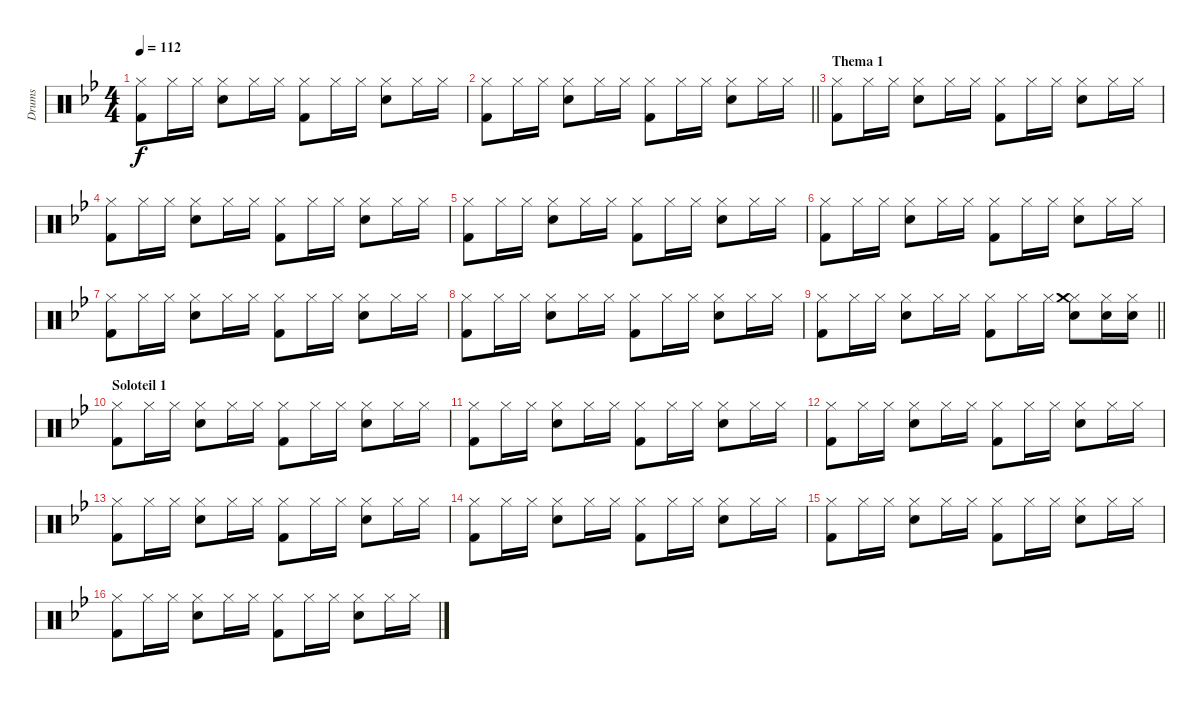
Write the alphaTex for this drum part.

\track ("Drums" "Drums") {instrument percussion}
\staff {score}
\articulation defaults
\ts (4 4)
\tempo 112
\clef neutral
\ks bb
("Hi-Hat (closed)" "Kick (hit) 2").8{dy f} "Hi-Hat (closed)".16 "Hi-Hat (closed)".16 ("Snare (hit) 2" "Hi-Hat (closed)").8 "Hi-Hat (closed)".16 "Hi-Hat (closed)".16 ("Hi-Hat (closed)" "Kick (hit) 2").8 "Hi-Hat (closed)".16 "Hi-Hat (closed)".16 ("Snare (hit) 2" "Hi-Hat (closed)").8 "Hi-Hat (closed)".16 "Hi-Hat (closed)".16 |
\barLineRight lightlight
("Hi-Hat (closed)" "Kick (hit) 2").8 "Hi-Hat (closed)".16 "Hi-Hat (closed)".16 ("Snare (hit) 2" "Hi-Hat (closed)").8 "Hi-Hat (closed)".16 "Hi-Hat (closed)".16 ("Hi-Hat (closed)" "Kick (hit) 2").8 "Hi-Hat (closed)".16 "Hi-Hat (closed)".16 ("Snare (hit) 2" "Hi-Hat (closed)").8 "Hi-Hat (closed)".16 "Hi-Hat (closed)".16 |
\section ("" "Thema 1")
("Hi-Hat (closed)" "Kick (hit) 2").8 "Hi-Hat (closed)".16 "Hi-Hat (closed)".16 ("Snare (hit) 2" "Hi-Hat (closed)").8 "Hi-Hat (closed)".16 "Hi-Hat (closed)".16 ("Hi-Hat (closed)" "Kick (hit) 2").8 "Hi-Hat (closed)".16 "Hi-Hat (closed)".16 ("Snare (hit) 2" "Hi-Hat (closed)").8 "Hi-Hat (closed)".16 "Hi-Hat (closed)".16 |
("Hi-Hat (closed)" "Kick (hit) 2").8 "Hi-Hat (closed)".16 "Hi-Hat (closed)".16 ("Snare (hit) 2" "Hi-Hat (closed)").8 "Hi-Hat (closed)".16 "Hi-Hat (closed)".16 ("Hi-Hat (closed)" "Kick (hit) 2").8 "Hi-Hat (closed)".16 "Hi-Hat (closed)".16 ("Snare (hit) 2" "Hi-Hat (closed)").8 "Hi-Hat (closed)".16 "Hi-Hat (closed)".16 |
("Hi-Hat (closed)" "Kick (hit) 2").8 "Hi-Hat (closed)".16 "Hi-Hat (closed)".16 ("Snare (hit) 2" "Hi-Hat (closed)").8 "Hi-Hat (closed)".16 "Hi-Hat (closed)".16 ("Hi-Hat (closed)" "Kick (hit) 2").8 "Hi-Hat (closed)".16 "Hi-Hat (closed)".16 ("Snare (hit) 2" "Hi-Hat (closed)").8 "Hi-Hat (closed)".16 "Hi-Hat (closed)".16 |
("Hi-Hat (closed)" "Kick (hit) 2").8 "Hi-Hat (closed)".16 "Hi-Hat (closed)".16 ("Snare (hit) 2" "Hi-Hat (closed)").8 "Hi-Hat (closed)".16 "Hi-Hat (closed)".16 ("Hi-Hat (closed)" "Kick (hit) 2").8 "Hi-Hat (closed)".16 "Hi-Hat (closed)".16 ("Snare (hit) 2" "Hi-Hat (closed)").8 "Hi-Hat (closed)".16 "Hi-Hat (closed)".16 |
("Hi-Hat (closed)" "Kick (hit) 2").8 "Hi-Hat (closed)".16 "Hi-Hat (closed)".16 ("Snare (hit) 2" "Hi-Hat (closed)").8 "Hi-Hat (closed)".16 "Hi-Hat (closed)".16 ("Hi-Hat (closed)" "Kick (hit) 2").8 "Hi-Hat (closed)".16 "Hi-Hat (closed)".16 ("Snare (hit) 2" "Hi-Hat (closed)").8 "Hi-Hat (closed)".16 "Hi-Hat (closed)".16 |
("Hi-Hat (closed)" "Kick (hit) 2").8 "Hi-Hat (closed)".16 "Hi-Hat (closed)".16 ("Snare (hit) 2" "Hi-Hat (closed)").8 "Hi-Hat (closed)".16 "Hi-Hat (closed)".16 ("Hi-Hat (closed)" "Kick (hit) 2").8 "Hi-Hat (closed)".16 "Hi-Hat (closed)".16 ("Snare (hit) 2" "Hi-Hat (closed)").8 "Hi-Hat (closed)".16 "Hi-Hat (closed)".16 |
\barLineRight lightlight
("Hi-Hat (closed)" "Kick (hit) 2").8 "Hi-Hat (closed)".16 "Hi-Hat (closed)".16 ("Snare (hit) 2" "Hi-Hat (closed)").8 "Hi-Hat (closed)".16 "Hi-Hat (closed)".16 ("Hi-Hat (closed)" "Kick (hit) 2").8 "Hi-Hat (closed)".16 "Hi-Hat (closed)".16 ("Snare (hit) 2" "Hi-Hat (closed)" "Crash medium (hit)").8 ("Hi-Hat (closed)" "Snare (hit) 2").16 ("Hi-Hat (closed)" "Snare (hit) 2").16 |
\section ("" "Soloteil 1")
("Hi-Hat (closed)" "Kick (hit) 2").8 "Hi-Hat (closed)".16 "Hi-Hat (closed)".16 ("Snare (hit) 2" "Hi-Hat (closed)").8 "Hi-Hat (closed)".16 "Hi-Hat (closed)".16 ("Hi-Hat (closed)" "Kick (hit) 2").8 "Hi-Hat (closed)".16 "Hi-Hat (closed)".16 ("Snare (hit) 2" "Hi-Hat (closed)").8 "Hi-Hat (closed)".16 "Hi-Hat (closed)".16 |
("Hi-Hat (closed)" "Kick (hit) 2").8 "Hi-Hat (closed)".16 "Hi-Hat (closed)".16 ("Snare (hit) 2" "Hi-Hat (closed)").8 "Hi-Hat (closed)".16 "Hi-Hat (closed)".16 ("Hi-Hat (closed)" "Kick (hit) 2").8 "Hi-Hat (closed)".16 "Hi-Hat (closed)".16 ("Snare (hit) 2" "Hi-Hat (closed)").8 "Hi-Hat (closed)".16 "Hi-Hat (closed)".16 |
("Hi-Hat (closed)" "Kick (hit) 2").8 "Hi-Hat (closed)".16 "Hi-Hat (closed)".16 ("Snare (hit) 2" "Hi-Hat (closed)").8 "Hi-Hat (closed)".16 "Hi-Hat (closed)".16 ("Hi-Hat (closed)" "Kick (hit) 2").8 "Hi-Hat (closed)".16 "Hi-Hat (closed)".16 ("Snare (hit) 2" "Hi-Hat (closed)").8 "Hi-Hat (closed)".16 "Hi-Hat (closed)".16 |
("Hi-Hat (closed)" "Kick (hit) 2").8 "Hi-Hat (closed)".16 "Hi-Hat (closed)".16 ("Snare (hit) 2" "Hi-Hat (closed)").8 "Hi-Hat (closed)".16 "Hi-Hat (closed)".16 ("Hi-Hat (closed)" "Kick (hit) 2").8 "Hi-Hat (closed)".16 "Hi-Hat (closed)".16 ("Snare (hit) 2" "Hi-Hat (closed)").8 "Hi-Hat (closed)".16 "Hi-Hat (closed)".16 |
("Hi-Hat (closed)" "Kick (hit) 2").8 "Hi-Hat (closed)".16 "Hi-Hat (closed)".16 ("Snare (hit) 2" "Hi-Hat (closed)").8 "Hi-Hat (closed)".16 "Hi-Hat (closed)".16 ("Hi-Hat (closed)" "Kick (hit) 2").8 "Hi-Hat (closed)".16 "Hi-Hat (closed)".16 ("Snare (hit) 2" "Hi-Hat (closed)").8 "Hi-Hat (closed)".16 "Hi-Hat (closed)".16 |
("Hi-Hat (closed)" "Kick (hit) 2").8 "Hi-Hat (closed)".16 "Hi-Hat (closed)".16 ("Snare (hit) 2" "Hi-Hat (closed)").8 "Hi-Hat (closed)".16 "Hi-Hat (closed)".16 ("Hi-Hat (closed)" "Kick (hit) 2").8 "Hi-Hat (closed)".16 "Hi-Hat (closed)".16 ("Snare (hit) 2" "Hi-Hat (closed)").8 "Hi-Hat (closed)".16 "Hi-Hat (closed)".16 |
("Hi-Hat (closed)" "Kick (hit) 2").8 "Hi-Hat (closed)".16 "Hi-Hat (closed)".16 ("Snare (hit) 2" "Hi-Hat (closed)").8 "Hi-Hat (closed)".16 "Hi-Hat (closed)".16 ("Hi-Hat (closed)" "Kick (hit) 2").8 "Hi-Hat (closed)".16 "Hi-Hat (closed)".16 ("Snare (hit) 2" "Hi-Hat (closed)").8 "Hi-Hat (closed)".16 "Hi-Hat (closed)".16
